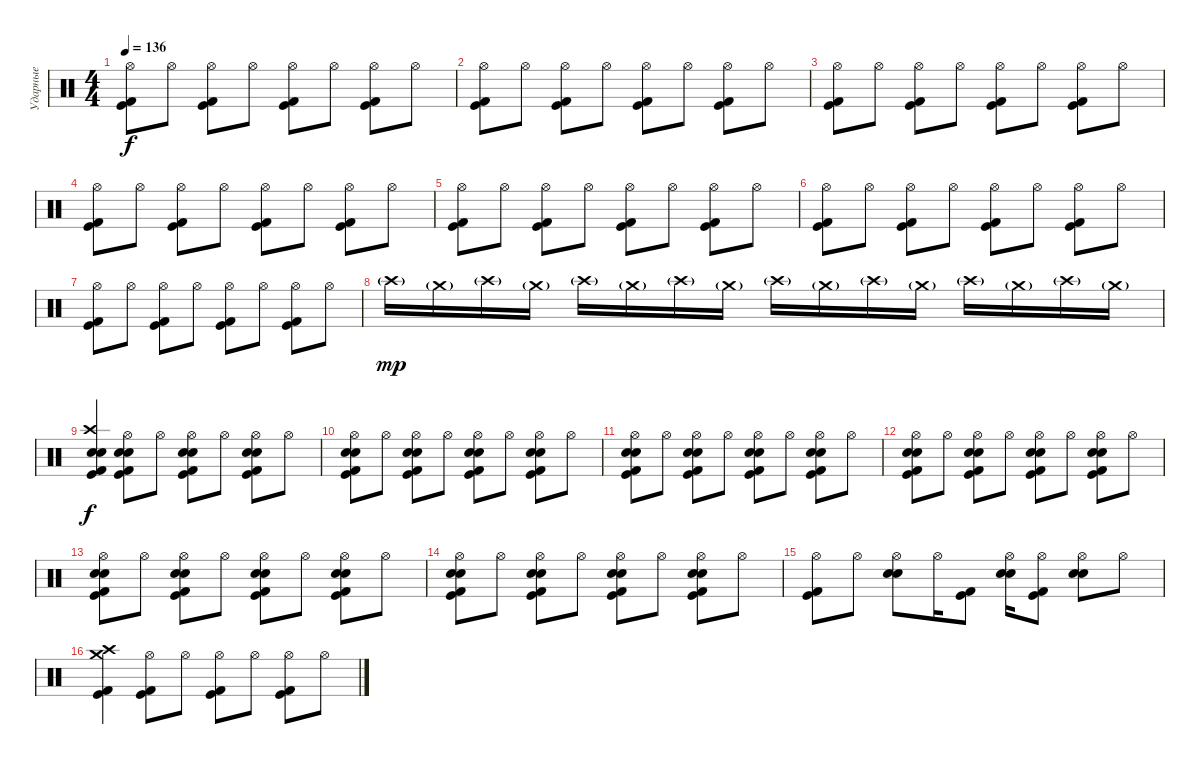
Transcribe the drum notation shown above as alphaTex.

\track ("Ударные" "Ударные") {instrument percussion}
\staff {score}
\articulation defaults
\ts (4 4)
\tempo 136
\clef neutral
\ks c
("Hi-Hat (open)" "Kick (hit)" "Kick (hit) 2").8{dy f} "Hi-Hat (open)".8 ("Hi-Hat (open)" "Kick (hit)" "Kick (hit) 2").8 "Hi-Hat (open)".8 ("Hi-Hat (open)" "Kick (hit)" "Kick (hit) 2").8 "Hi-Hat (open)".8 ("Hi-Hat (open)" "Kick (hit)" "Kick (hit) 2").8 "Hi-Hat (open)".8 |
("Hi-Hat (open)" "Kick (hit)" "Kick (hit) 2").8 "Hi-Hat (open)".8 ("Hi-Hat (open)" "Kick (hit)" "Kick (hit) 2").8 "Hi-Hat (open)".8 ("Hi-Hat (open)" "Kick (hit)" "Kick (hit) 2").8 "Hi-Hat (open)".8 ("Hi-Hat (open)" "Kick (hit)" "Kick (hit) 2").8 "Hi-Hat (open)".8 |
("Hi-Hat (open)" "Kick (hit)" "Kick (hit) 2").8 "Hi-Hat (open)".8 ("Hi-Hat (open)" "Kick (hit)" "Kick (hit) 2").8 "Hi-Hat (open)".8 ("Hi-Hat (open)" "Kick (hit)" "Kick (hit) 2").8 "Hi-Hat (open)".8 ("Hi-Hat (open)" "Kick (hit)" "Kick (hit) 2").8 "Hi-Hat (open)".8 |
("Hi-Hat (open)" "Kick (hit)" "Kick (hit) 2").8 "Hi-Hat (open)".8 ("Hi-Hat (open)" "Kick (hit)" "Kick (hit) 2").8 "Hi-Hat (open)".8 ("Hi-Hat (open)" "Kick (hit)" "Kick (hit) 2").8 "Hi-Hat (open)".8 ("Hi-Hat (open)" "Kick (hit)" "Kick (hit) 2").8 "Hi-Hat (open)".8 |
("Hi-Hat (open)" "Kick (hit)" "Kick (hit) 2").8 "Hi-Hat (open)".8 ("Hi-Hat (open)" "Kick (hit)" "Kick (hit) 2").8 "Hi-Hat (open)".8 ("Hi-Hat (open)" "Kick (hit)" "Kick (hit) 2").8 "Hi-Hat (open)".8 ("Hi-Hat (open)" "Kick (hit)" "Kick (hit) 2").8 "Hi-Hat (open)".8 |
("Hi-Hat (open)" "Kick (hit)" "Kick (hit) 2").8 "Hi-Hat (open)".8 ("Hi-Hat (open)" "Kick (hit)" "Kick (hit) 2").8 "Hi-Hat (open)".8 ("Hi-Hat (open)" "Kick (hit)" "Kick (hit) 2").8 "Hi-Hat (open)".8 ("Hi-Hat (open)" "Kick (hit)" "Kick (hit) 2").8 "Hi-Hat (open)".8 |
("Hi-Hat (open)" "Kick (hit)" "Kick (hit) 2").8 "Hi-Hat (open)".8 ("Hi-Hat (open)" "Kick (hit)" "Kick (hit) 2").8 "Hi-Hat (open)".8 ("Hi-Hat (open)" "Kick (hit)" "Kick (hit) 2").8 "Hi-Hat (open)".8 ("Hi-Hat (open)" "Kick (hit)" "Kick (hit) 2").8 "Hi-Hat (open)".8 |
"Crash high (hit)"{g}.16{dy mp volume 5} "Crash medium (hit)"{g}.16{volume 16} "Crash high (hit)"{g}.16 "Crash medium (hit)"{g}.16 "Crash high (hit)"{g}.16 "Crash medium (hit)"{g}.16 "Crash high (hit)"{g}.16 "Crash medium (hit)"{g}.16 "Crash high (hit)"{g}.16 "Crash medium (hit)"{g}.16 "Crash high (hit)"{g}.16 "Crash medium (hit)"{g}.16 "Crash high (hit)"{g}.16 "Crash medium (hit)"{g}.16 "Crash high (hit)"{g}.16 "Crash medium (hit)"{g}.16 |
("Crash high (hit)" "Snare (hit) 2" "Kick (hit) 2" "Kick (hit)" "Electric Snare (hit)").4{dy f} ("Hi-Hat (open)" "Snare (hit) 2" "Kick (hit) 2" "Kick (hit)" "Electric Snare (hit)").8 "Hi-Hat (open)".8 ("Hi-Hat (open)" "Snare (hit) 2" "Kick (hit) 2" "Kick (hit)" "Electric Snare (hit)").8 "Hi-Hat (open)".8 ("Hi-Hat (open)" "Snare (hit) 2" "Kick (hit) 2" "Kick (hit)" "Electric Snare (hit)").8 "Hi-Hat (open)".8 |
("Hi-Hat (open)" "Snare (hit) 2" "Kick (hit) 2" "Kick (hit)" "Electric Snare (hit)").8 "Hi-Hat (open)".8 ("Hi-Hat (open)" "Snare (hit) 2" "Kick (hit) 2" "Kick (hit)" "Electric Snare (hit)").8 "Hi-Hat (open)".8 ("Hi-Hat (open)" "Snare (hit) 2" "Kick (hit) 2" "Kick (hit)" "Electric Snare (hit)").8 "Hi-Hat (open)".8 ("Hi-Hat (open)" "Snare (hit) 2" "Kick (hit) 2" "Kick (hit)" "Electric Snare (hit)").8 "Hi-Hat (open)".8 |
("Hi-Hat (open)" "Snare (hit) 2" "Kick (hit) 2" "Kick (hit)" "Electric Snare (hit)").8 "Hi-Hat (open)".8 ("Hi-Hat (open)" "Snare (hit) 2" "Kick (hit) 2" "Kick (hit)" "Electric Snare (hit)").8 "Hi-Hat (open)".8 ("Hi-Hat (open)" "Snare (hit) 2" "Kick (hit) 2" "Kick (hit)" "Electric Snare (hit)").8 "Hi-Hat (open)".8 ("Hi-Hat (open)" "Snare (hit) 2" "Kick (hit) 2" "Kick (hit)" "Electric Snare (hit)").8 "Hi-Hat (open)".8 |
("Hi-Hat (open)" "Snare (hit) 2" "Kick (hit) 2" "Kick (hit)" "Electric Snare (hit)").8 "Hi-Hat (open)".8 ("Hi-Hat (open)" "Snare (hit) 2" "Kick (hit) 2" "Kick (hit)" "Electric Snare (hit)").8 "Hi-Hat (open)".8 ("Hi-Hat (open)" "Snare (hit) 2" "Kick (hit) 2" "Kick (hit)" "Electric Snare (hit)").8 "Hi-Hat (open)".8 ("Hi-Hat (open)" "Snare (hit) 2" "Kick (hit) 2" "Kick (hit)" "Electric Snare (hit)").8 "Hi-Hat (open)".8 |
("Hi-Hat (open)" "Snare (hit) 2" "Kick (hit) 2" "Kick (hit)" "Electric Snare (hit)").8 "Hi-Hat (open)".8 ("Hi-Hat (open)" "Snare (hit) 2" "Kick (hit) 2" "Kick (hit)" "Electric Snare (hit)").8 "Hi-Hat (open)".8 ("Hi-Hat (open)" "Snare (hit) 2" "Kick (hit) 2" "Kick (hit)" "Electric Snare (hit)").8 "Hi-Hat (open)".8 ("Hi-Hat (open)" "Snare (hit) 2" "Kick (hit) 2" "Kick (hit)" "Electric Snare (hit)").8 "Hi-Hat (open)".8 |
("Hi-Hat (open)" "Snare (hit) 2" "Kick (hit) 2" "Kick (hit)" "Electric Snare (hit)").8 "Hi-Hat (open)".8 ("Hi-Hat (open)" "Snare (hit) 2" "Kick (hit) 2" "Kick (hit)" "Electric Snare (hit)").8 "Hi-Hat (open)".8 ("Hi-Hat (open)" "Snare (hit) 2" "Kick (hit) 2" "Kick (hit)" "Electric Snare (hit)").8 "Hi-Hat (open)".8 ("Hi-Hat (open)" "Snare (hit) 2" "Kick (hit) 2" "Kick (hit)" "Electric Snare (hit)").8 "Hi-Hat (open)".8 |
("Hi-Hat (open)" "Kick (hit)" "Kick (hit) 2").8 "Hi-Hat (open)".8 ("Hi-Hat (open)" "Snare (hit) 2" "Electric Snare (hit)").8 "Hi-Hat (open)".16 ("Kick (hit)" "Kick (hit) 2").8 ("Hi-Hat (open)" "Snare (hit) 2" "Electric Snare (hit)").16 ("Hi-Hat (open)" "Kick (hit)" "Kick (hit) 2").8 ("Hi-Hat (open)" "Snare (hit) 2" "Electric Snare (hit)").8 "Hi-Hat (open)".8 |
("Crash high (hit)" "Kick (hit)" "Kick (hit) 2" "Crash medium (hit)").4 ("Hi-Hat (open)" "Kick (hit)" "Kick (hit) 2").8 "Hi-Hat (open)".8 ("Hi-Hat (open)" "Kick (hit)" "Kick (hit) 2").8 "Hi-Hat (open)".8 ("Hi-Hat (open)" "Kick (hit)" "Kick (hit) 2").8 "Hi-Hat (open)".8
